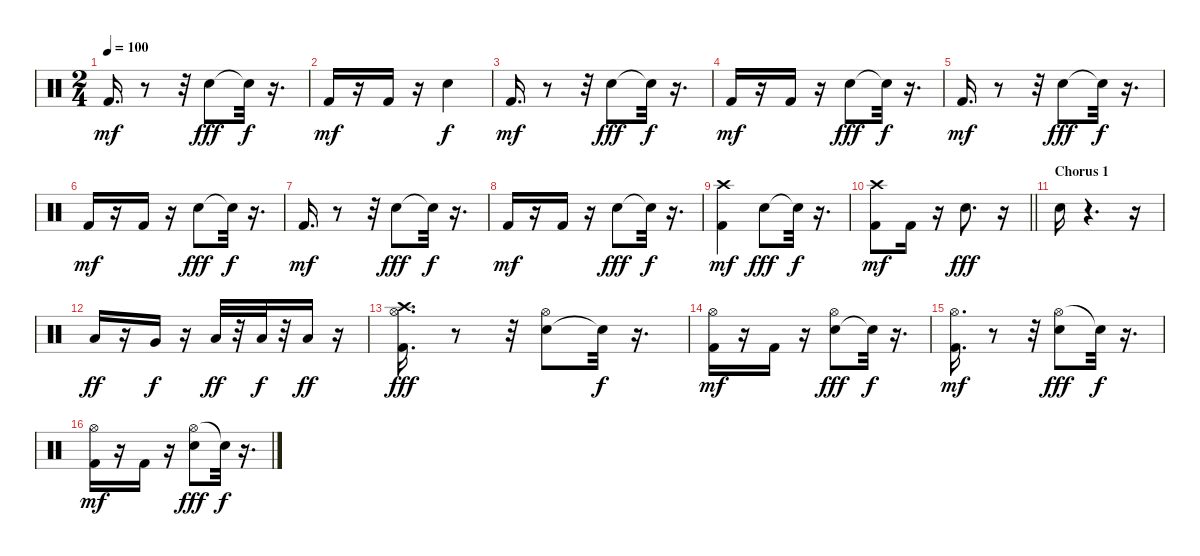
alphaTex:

\track "" {instrument percussion}
\staff {score}
\articulation defaults
\ts (2 4)
\tempo 100
\clef neutral
\ks c "Kick (hit) 2".16{d dy mf}
r.8 r.32 "Snare (hit) 2".8{dy fff} "Snare (hit)"{t}.32{dy f} r.16{d} |
"Kick (hit) 2".16{dy mf} r.16 "Kick (hit) 2".16 r.16 "Snare (hit) 2".4{dy f} |
"Kick (hit) 2".16{d dy mf} r.8 r.32 "Snare (hit) 2".8{dy fff} "Snare (hit)"{t}.32{dy f} r.16{d} |
"Kick (hit) 2".16{dy mf} r.16 "Kick (hit) 2".16 r.16 "Snare (hit) 2".8{dy fff} "Snare (hit)"{t}.32{dy f} r.16{d} |
"Kick (hit) 2".16{d dy mf} r.8 r.32 "Snare (hit) 2".8{dy fff} "Snare (hit)"{t}.32{dy f} r.16{d} |
"Kick (hit) 2".16{dy mf} r.16 "Kick (hit) 2".16 r.16 "Snare (hit) 2".8{dy fff} "Snare (hit)"{t}.32{dy f} r.16{d} |
"Kick (hit) 2".16{d dy mf} r.8 r.32 "Snare (hit) 2".8{dy fff} "Snare (hit)"{t}.32{dy f} r.16{d} |
"Kick (hit) 2".16{dy mf} r.16 "Kick (hit) 2".16 r.16 "Snare (hit) 2".8{dy fff} "Snare (hit)"{t}.32{dy f} r.16{d} |
("Crash high (hit)" "Kick (hit) 2").4{dy mf} "Snare (hit) 2".8{dy fff} "Snare (hit)"{t}.32{dy f} r.16{d} |
\barLineRight lightlight
("Crash high (hit)" "Kick (hit) 2").8{dy mf} "Kick (hit) 2".16 r.16 "Snare (hit) 2".8{d dy fff} r.16 |
\section ("" "Chorus 1")
"Snare (hit) 2".16 r.4{d} r.16 |
"Low Floor Tom (hit)".16{dy ff} r.16 "Very Low Tom (hit)".16{dy f} r.16 "Low Tom (hit)".32{dy ff} r.32 "Low Tom (hit)".32{dy f} r.32 "Low Tom (hit)".16{dy ff} r.16 |
("Kick (hit) 2" "Crash high (hit)" "Hi-Hat (open)").16{d dy fff} r.8 r.32 ("Snare (hit) 2" "Hi-Hat (open)").8 "Snare (hit)"{t}.32{dy f} r.16{d} |
("Kick (hit) 2" "Hi-Hat (open)").16{dy mf} r.16 "Kick (hit) 2".16 r.16 ("Snare (hit) 2" "Hi-Hat (open)").8{dy fff} "Snare (hit)"{t}.32{dy f} r.16{d} |
("Hi-Hat (open)" "Kick (hit) 2").16{d dy mf} r.8 r.32 ("Hi-Hat (open)" "Snare (hit) 2").8{dy fff} "Snare (hit)"{t}.32{dy f} r.16{d} |
("Hi-Hat (open)" "Kick (hit) 2").16{dy mf} r.16 "Kick (hit) 2".16 r.16 ("Hi-Hat (open)" "Snare (hit) 2").8{dy fff} "Snare (hit)"{t}.32{dy f} r.16{d}
